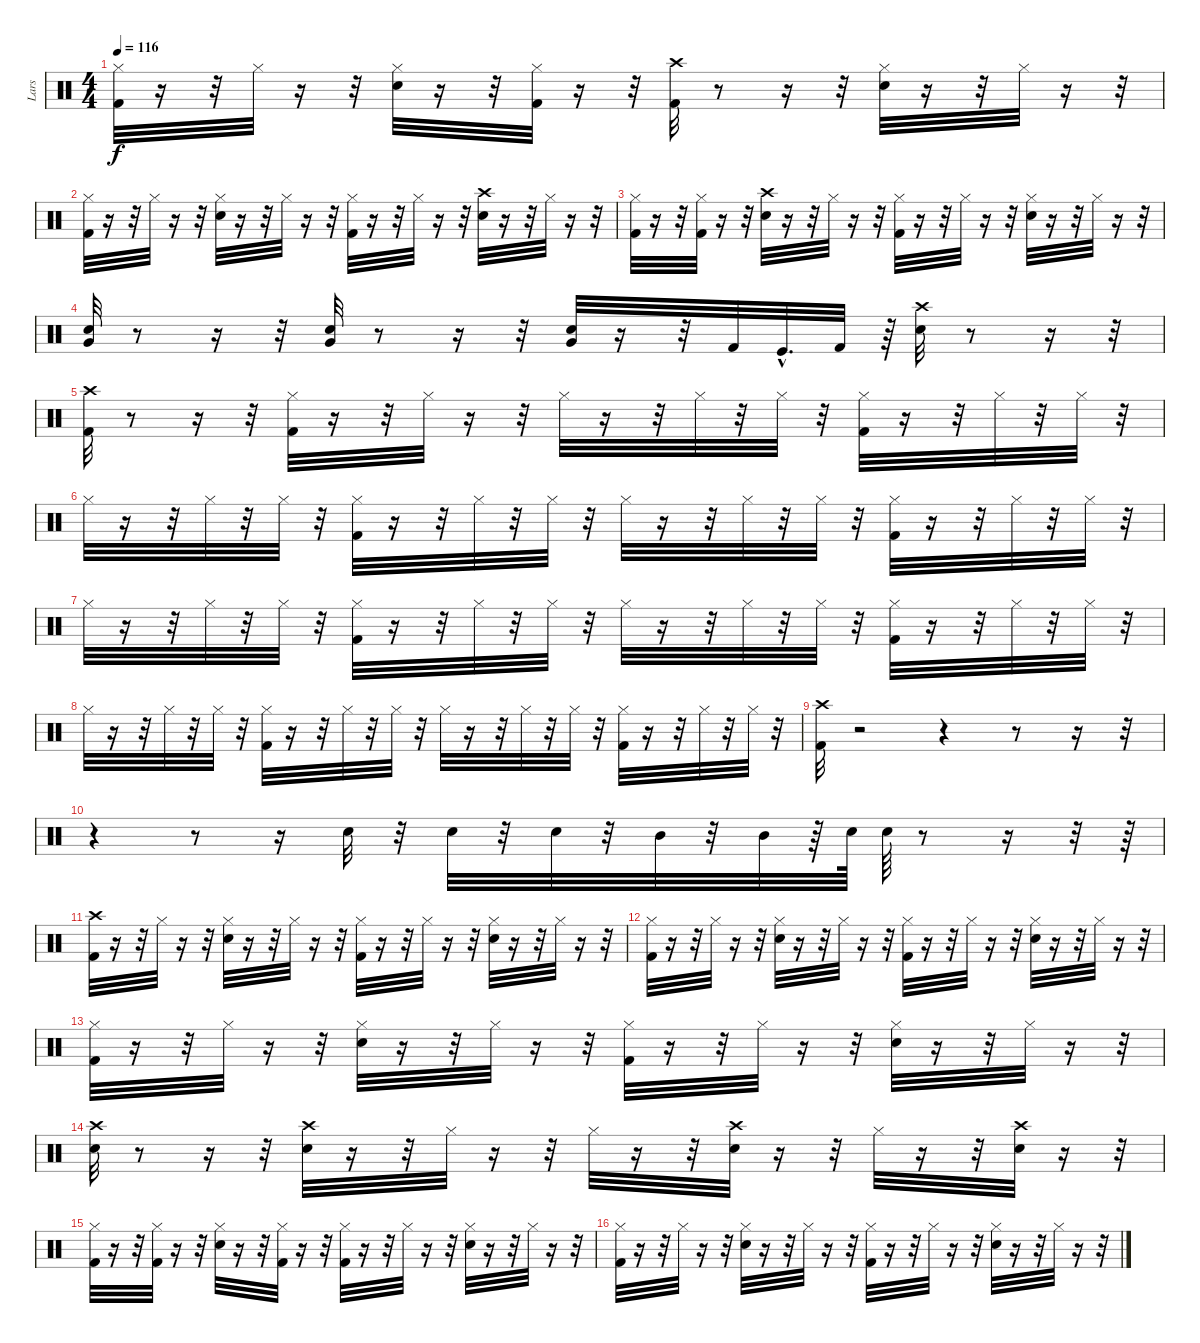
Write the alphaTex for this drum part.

\track ("Lars" "Lars") {instrument percussion}
\staff {score}
\articulation defaults
\ts (4 4)
\tempo 116
\clef neutral
\ks c
("Kick (hit) 2" "Hi-Hat (closed)").32{dy f} r.16 r.32 "Hi-Hat (closed)".32 r.16 r.32 ("Snare (hit) 2" "Hi-Hat (closed)").32 r.16 r.32 ("Kick (hit) 2" "Hi-Hat (closed)").32 r.16 r.32 ("Crash high (hit)" "Kick (hit) 2").32 r.8 r.16 r.32 ("Hi-Hat (closed)" "Snare (hit) 2").32 r.16 r.32 "Hi-Hat (closed)".32 r.16 r.32 |
("Kick (hit) 2" "Hi-Hat (closed)").32 r.16 r.32 "Hi-Hat (closed)".32 r.16 r.32 ("Snare (hit) 2" "Hi-Hat (closed)").32 r.16 r.32 "Hi-Hat (closed)".32 r.16 r.32 ("Hi-Hat (closed)" "Kick (hit) 2").32 r.16 r.32 "Hi-Hat (closed)".32 r.16 r.32 ("Crash high (hit)" "Snare (hit) 2").32 r.16 r.32 "Hi-Hat (closed)".32 r.16 r.32 |
("Hi-Hat (closed)" "Kick (hit) 2").32 r.16 r.32 ("Hi-Hat (closed)" "Kick (hit) 2").32 r.16 r.32 ("Crash high (hit)" "Snare (hit) 2").32 r.16 r.32 "Hi-Hat (closed)".32 r.16 r.32 ("Kick (hit) 2" "Hi-Hat (closed)").32 r.16 r.32 "Hi-Hat (closed)".32 r.16 r.32 ("Hi-Hat (closed)" "Snare (hit) 2").32 r.16 r.32 "Hi-Hat (closed)".32 r.16 r.32 |
("Very Low Tom (hit)" "Snare (hit) 2").32 r.8 r.16 r.32 ("Very Low Tom (hit)" "Snare (hit) 2").32 r.8 r.16 r.32 ("Very Low Tom (hit)" "Snare (hit) 2").32 r.16 r.32 "Kick (hit) 2".32 "Kick (hit)"{hac}.32{d} "Kick (hit) 2".32 r.64 ("Crash high (hit)" "Snare (hit) 2").32 r.8 r.16 r.32 |
("Kick (hit) 2" "Crash high (hit)").32 r.8 r.16 r.32 ("Hi-Hat (closed)" "Kick (hit) 2").32 r.16 r.32 "Hi-Hat (closed)".32 r.16 r.32 "Hi-Hat (closed)".32 r.16 r.32 "Hi-Hat (closed)".32 r.32 "Hi-Hat (closed)".32 r.32 ("Hi-Hat (closed)" "Kick (hit) 2").32 r.16 r.32 "Hi-Hat (closed)".32 r.32 "Hi-Hat (closed)".32 r.32 |
"Hi-Hat (closed)".32 r.16 r.32 "Hi-Hat (closed)".32 r.32 "Hi-Hat (closed)".32 r.32 ("Kick (hit) 2" "Hi-Hat (closed)").32 r.16 r.32 "Hi-Hat (closed)".32 r.32 "Hi-Hat (closed)".32 r.32 "Hi-Hat (closed)".32 r.16 r.32 "Hi-Hat (closed)".32 r.32 "Hi-Hat (closed)".32 r.32 ("Kick (hit) 2" "Hi-Hat (closed)").32 r.16 r.32 "Hi-Hat (closed)".32 r.32 "Hi-Hat (closed)".32 r.32 |
"Hi-Hat (closed)".32 r.16 r.32 "Hi-Hat (closed)".32 r.32 "Hi-Hat (closed)".32 r.32 ("Kick (hit) 2" "Hi-Hat (closed)").32 r.16 r.32 "Hi-Hat (closed)".32 r.32 "Hi-Hat (closed)".32 r.32 "Hi-Hat (closed)".32 r.16 r.32 "Hi-Hat (closed)".32 r.32 "Hi-Hat (closed)".32 r.32 ("Kick (hit) 2" "Hi-Hat (closed)").32 r.16 r.32 "Hi-Hat (closed)".32 r.32 "Hi-Hat (closed)".32 r.32 |
"Hi-Hat (closed)".32 r.16 r.32 "Hi-Hat (closed)".32 r.32 "Hi-Hat (closed)".32 r.32 ("Kick (hit) 2" "Hi-Hat (closed)").32 r.16 r.32 "Hi-Hat (closed)".32 r.32 "Hi-Hat (closed)".32 r.32 "Hi-Hat (closed)".32 r.16 r.32 "Hi-Hat (closed)".32 r.32 "Hi-Hat (closed)".32 r.32 ("Kick (hit) 2" "Hi-Hat (closed)").32 r.16 r.32 "Hi-Hat (closed)".32 r.32 "Hi-Hat (closed)".32 r.32 |
("Kick (hit) 2" "Crash high (hit)").32 r.2 r.4 r.8 r.16 r.32 |
r.4 r.8 r.16 "Snare (hit) 2".32 r.32 "Snare (hit) 2".32 r.32 "Snare (hit) 2".32 r.32 "Mid Tom (hit)".32 r.32 "Mid Tom (hit)".32 r.64 "Snare (hit) 2".64 "Snare (hit) 2".64 r.8 r.16 r.32 r.64 |
("Kick (hit) 2" "Crash high (hit)").32 r.16 r.32 "Hi-Hat (closed)".32 r.16 r.32 ("Snare (hit) 2" "Hi-Hat (closed)").32 r.16 r.32 "Hi-Hat (closed)".32 r.16 r.32 ("Hi-Hat (closed)" "Kick (hit) 2").32 r.16 r.32 "Hi-Hat (closed)".32 r.16 r.32 ("Snare (hit) 2" "Hi-Hat (closed)").32 r.16 r.32 "Hi-Hat (closed)".32 r.16 r.32 |
("Kick (hit) 2" "Hi-Hat (closed)").32 r.16 r.32 "Hi-Hat (closed)".32 r.16 r.32 ("Snare (hit) 2" "Hi-Hat (closed)").32 r.16 r.32 "Hi-Hat (closed)".32 r.16 r.32 ("Kick (hit) 2" "Hi-Hat (closed)").32 r.16 r.32 "Hi-Hat (closed)".32 r.16 r.32 ("Snare (hit) 2" "Hi-Hat (closed)").32 r.16 r.32 "Hi-Hat (closed)".32 r.16 r.32 |
("Kick (hit) 2" "Hi-Hat (closed)").32 r.16 r.32 "Hi-Hat (closed)".32 r.16 r.32 ("Snare (hit) 2" "Hi-Hat (closed)").32 r.16 r.32 "Hi-Hat (closed)".32 r.16 r.32 ("Kick (hit) 2" "Hi-Hat (closed)").32 r.16 r.32 "Hi-Hat (closed)".32 r.16 r.32 ("Snare (hit) 2" "Hi-Hat (closed)").32 r.16 r.32 "Hi-Hat (closed)".32 r.16 r.32 |
("Snare (hit) 2" "Crash high (hit)").32 r.8 r.16 r.32 ("Crash high (hit)" "Snare (hit) 2").32 r.16 r.32 "Hi-Hat (closed)".32 r.16 r.32 "Hi-Hat (closed)".32 r.16 r.32 ("Crash high (hit)" "Snare (hit) 2").32 r.16 r.32 "Hi-Hat (closed)".32 r.16 r.32 ("Crash high (hit)" "Snare (hit) 2").32 r.16 r.32 |
("Kick (hit) 2" "Hi-Hat (closed)").32 r.16 r.32 ("Kick (hit) 2" "Hi-Hat (closed)").32 r.16 r.32 ("Snare (hit) 2" "Hi-Hat (closed)").32 r.16 r.32 ("Kick (hit) 2" "Hi-Hat (closed)").32 r.16 r.32 ("Hi-Hat (closed)" "Kick (hit) 2").32 r.16 r.32 "Hi-Hat (closed)".32 r.16 r.32 ("Snare (hit) 2" "Hi-Hat (closed)").32 r.16 r.32 "Hi-Hat (closed)".32 r.16 r.32 |
("Kick (hit) 2" "Hi-Hat (closed)").32 r.16 r.32 "Hi-Hat (closed)".32 r.16 r.32 ("Snare (hit) 2" "Hi-Hat (closed)").32 r.16 r.32 "Hi-Hat (closed)".32 r.16 r.32 ("Kick (hit) 2" "Hi-Hat (closed)").32 r.16 r.32 "Hi-Hat (closed)".32 r.16 r.32 ("Snare (hit) 2" "Hi-Hat (closed)").32 r.16 r.32 "Hi-Hat (closed)".32 r.16 r.32
